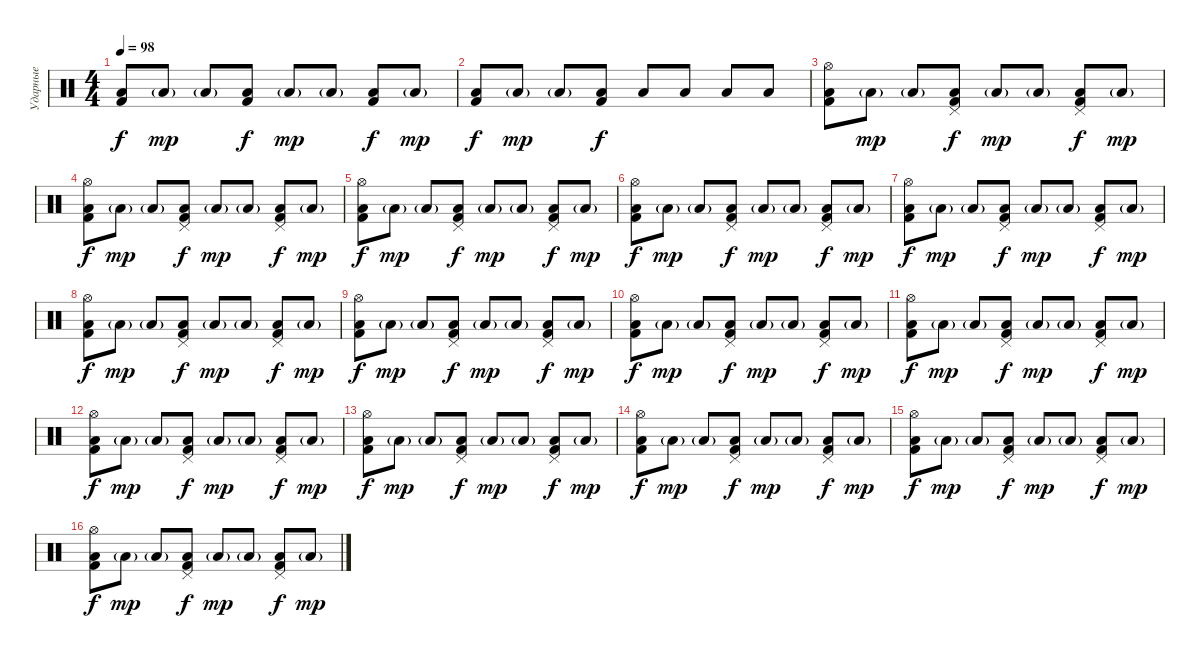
\track ("Ударные" "Ударные") {instrument percussion}
\staff {score}
\articulation defaults
\ts (4 4)
\tempo 98
\clef neutral
\ks c
("Kick (hit) 2" "Low Tom (hit)").8{dy f} "Low Tom (hit)"{g}.8{dy mp} "Low Tom (hit)"{g}.8 ("Kick (hit) 2" "Low Tom (hit)").8{dy f} "Low Tom (hit)"{g}.8{dy mp} "Low Tom (hit)"{g}.8 ("Kick (hit) 2" "Low Tom (hit)").8{dy f} "Low Tom (hit)"{g}.8{dy mp} |
("Kick (hit) 2" "Low Tom (hit)").8{dy f} "Low Tom (hit)"{g}.8{dy mp} "Low Tom (hit)"{g}.8 ("Kick (hit) 2" "Low Tom (hit)").8{dy f} "Low Tom (hit)".8 "Low Tom (hit)".8 "Low Tom (hit)".8 "Low Tom (hit)".8 |
("Hi-Hat (open)" "Kick (hit) 2" "Low Tom (hit)").8 "Low Tom (hit)"{g}.8{dy mp} "Low Tom (hit)"{g}.8 ("Pedal Hi-Hat (hit)" "Kick (hit) 2" "Low Tom (hit)").8{dy f} "Low Tom (hit)"{g}.8{dy mp} "Low Tom (hit)"{g}.8 ("Pedal Hi-Hat (hit)" "Kick (hit) 2" "Low Tom (hit)").8{dy f} "Low Tom (hit)"{g}.8{dy mp} |
("Hi-Hat (open)" "Kick (hit) 2" "Low Tom (hit)").8{dy f} "Low Tom (hit)"{g}.8{dy mp} "Low Tom (hit)"{g}.8 ("Pedal Hi-Hat (hit)" "Kick (hit) 2" "Low Tom (hit)").8{dy f} "Low Tom (hit)"{g}.8{dy mp} "Low Tom (hit)"{g}.8 ("Pedal Hi-Hat (hit)" "Kick (hit) 2" "Low Tom (hit)").8{dy f} "Low Tom (hit)"{g}.8{dy mp} |
("Hi-Hat (open)" "Kick (hit) 2" "Low Tom (hit)").8{dy f} "Low Tom (hit)"{g}.8{dy mp} "Low Tom (hit)"{g}.8 ("Pedal Hi-Hat (hit)" "Kick (hit) 2" "Low Tom (hit)").8{dy f} "Low Tom (hit)"{g}.8{dy mp} "Low Tom (hit)"{g}.8 ("Pedal Hi-Hat (hit)" "Kick (hit) 2" "Low Tom (hit)").8{dy f} "Low Tom (hit)"{g}.8{dy mp} |
("Hi-Hat (open)" "Kick (hit) 2" "Low Tom (hit)").8{dy f} "Low Tom (hit)"{g}.8{dy mp} "Low Tom (hit)"{g}.8 ("Pedal Hi-Hat (hit)" "Kick (hit) 2" "Low Tom (hit)").8{dy f} "Low Tom (hit)"{g}.8{dy mp} "Low Tom (hit)"{g}.8 ("Pedal Hi-Hat (hit)" "Kick (hit) 2" "Low Tom (hit)").8{dy f} "Low Tom (hit)"{g}.8{dy mp} |
("Hi-Hat (open)" "Kick (hit) 2" "Low Tom (hit)").8{dy f} "Low Tom (hit)"{g}.8{dy mp} "Low Tom (hit)"{g}.8 ("Pedal Hi-Hat (hit)" "Kick (hit) 2" "Low Tom (hit)").8{dy f} "Low Tom (hit)"{g}.8{dy mp} "Low Tom (hit)"{g}.8 ("Pedal Hi-Hat (hit)" "Kick (hit) 2" "Low Tom (hit)").8{dy f} "Low Tom (hit)"{g}.8{dy mp} |
("Hi-Hat (open)" "Kick (hit) 2" "Low Tom (hit)").8{dy f} "Low Tom (hit)"{g}.8{dy mp} "Low Tom (hit)"{g}.8 ("Pedal Hi-Hat (hit)" "Kick (hit) 2" "Low Tom (hit)").8{dy f} "Low Tom (hit)"{g}.8{dy mp} "Low Tom (hit)"{g}.8 ("Pedal Hi-Hat (hit)" "Kick (hit) 2" "Low Tom (hit)").8{dy f} "Low Tom (hit)"{g}.8{dy mp} |
("Hi-Hat (open)" "Kick (hit) 2" "Low Tom (hit)").8{dy f} "Low Tom (hit)"{g}.8{dy mp} "Low Tom (hit)"{g}.8 ("Pedal Hi-Hat (hit)" "Kick (hit) 2" "Low Tom (hit)").8{dy f} "Low Tom (hit)"{g}.8{dy mp} "Low Tom (hit)"{g}.8 ("Pedal Hi-Hat (hit)" "Kick (hit) 2" "Low Tom (hit)").8{dy f} "Low Tom (hit)"{g}.8{dy mp} |
("Hi-Hat (open)" "Kick (hit) 2" "Low Tom (hit)").8{dy f} "Low Tom (hit)"{g}.8{dy mp} "Low Tom (hit)"{g}.8 ("Pedal Hi-Hat (hit)" "Kick (hit) 2" "Low Tom (hit)").8{dy f} "Low Tom (hit)"{g}.8{dy mp} "Low Tom (hit)"{g}.8 ("Pedal Hi-Hat (hit)" "Kick (hit) 2" "Low Tom (hit)").8{dy f} "Low Tom (hit)"{g}.8{dy mp} |
("Hi-Hat (open)" "Kick (hit) 2" "Low Tom (hit)").8{dy f} "Low Tom (hit)"{g}.8{dy mp} "Low Tom (hit)"{g}.8 ("Pedal Hi-Hat (hit)" "Kick (hit) 2" "Low Tom (hit)").8{dy f} "Low Tom (hit)"{g}.8{dy mp} "Low Tom (hit)"{g}.8 ("Pedal Hi-Hat (hit)" "Kick (hit) 2" "Low Tom (hit)").8{dy f} "Low Tom (hit)"{g}.8{dy mp} |
("Hi-Hat (open)" "Kick (hit) 2" "Low Tom (hit)").8{dy f} "Low Tom (hit)"{g}.8{dy mp} "Low Tom (hit)"{g}.8 ("Pedal Hi-Hat (hit)" "Kick (hit) 2" "Low Tom (hit)").8{dy f} "Low Tom (hit)"{g}.8{dy mp} "Low Tom (hit)"{g}.8 ("Pedal Hi-Hat (hit)" "Kick (hit) 2" "Low Tom (hit)").8{dy f} "Low Tom (hit)"{g}.8{dy mp} |
("Hi-Hat (open)" "Kick (hit) 2" "Low Tom (hit)").8{dy f} "Low Tom (hit)"{g}.8{dy mp} "Low Tom (hit)"{g}.8 ("Pedal Hi-Hat (hit)" "Kick (hit) 2" "Low Tom (hit)").8{dy f} "Low Tom (hit)"{g}.8{dy mp} "Low Tom (hit)"{g}.8 ("Pedal Hi-Hat (hit)" "Kick (hit) 2" "Low Tom (hit)").8{dy f} "Low Tom (hit)"{g}.8{dy mp} |
("Hi-Hat (open)" "Kick (hit) 2" "Low Tom (hit)").8{dy f} "Low Tom (hit)"{g}.8{dy mp} "Low Tom (hit)"{g}.8 ("Pedal Hi-Hat (hit)" "Kick (hit) 2" "Low Tom (hit)").8{dy f} "Low Tom (hit)"{g}.8{dy mp} "Low Tom (hit)"{g}.8 ("Pedal Hi-Hat (hit)" "Kick (hit) 2" "Low Tom (hit)").8{dy f} "Low Tom (hit)"{g}.8{dy mp} |
("Hi-Hat (open)" "Kick (hit) 2" "Low Tom (hit)").8{dy f} "Low Tom (hit)"{g}.8{dy mp} "Low Tom (hit)"{g}.8 ("Pedal Hi-Hat (hit)" "Kick (hit) 2" "Low Tom (hit)").8{dy f} "Low Tom (hit)"{g}.8{dy mp} "Low Tom (hit)"{g}.8 ("Pedal Hi-Hat (hit)" "Kick (hit) 2" "Low Tom (hit)").8{dy f} "Low Tom (hit)"{g}.8{dy mp} |
("Hi-Hat (open)" "Kick (hit) 2" "Low Tom (hit)").8{dy f} "Low Tom (hit)"{g}.8{dy mp} "Low Tom (hit)"{g}.8 ("Pedal Hi-Hat (hit)" "Kick (hit) 2" "Low Tom (hit)").8{dy f} "Low Tom (hit)"{g}.8{dy mp} "Low Tom (hit)"{g}.8 ("Pedal Hi-Hat (hit)" "Kick (hit) 2" "Low Tom (hit)").8{dy f} "Low Tom (hit)"{g}.8{dy mp}
